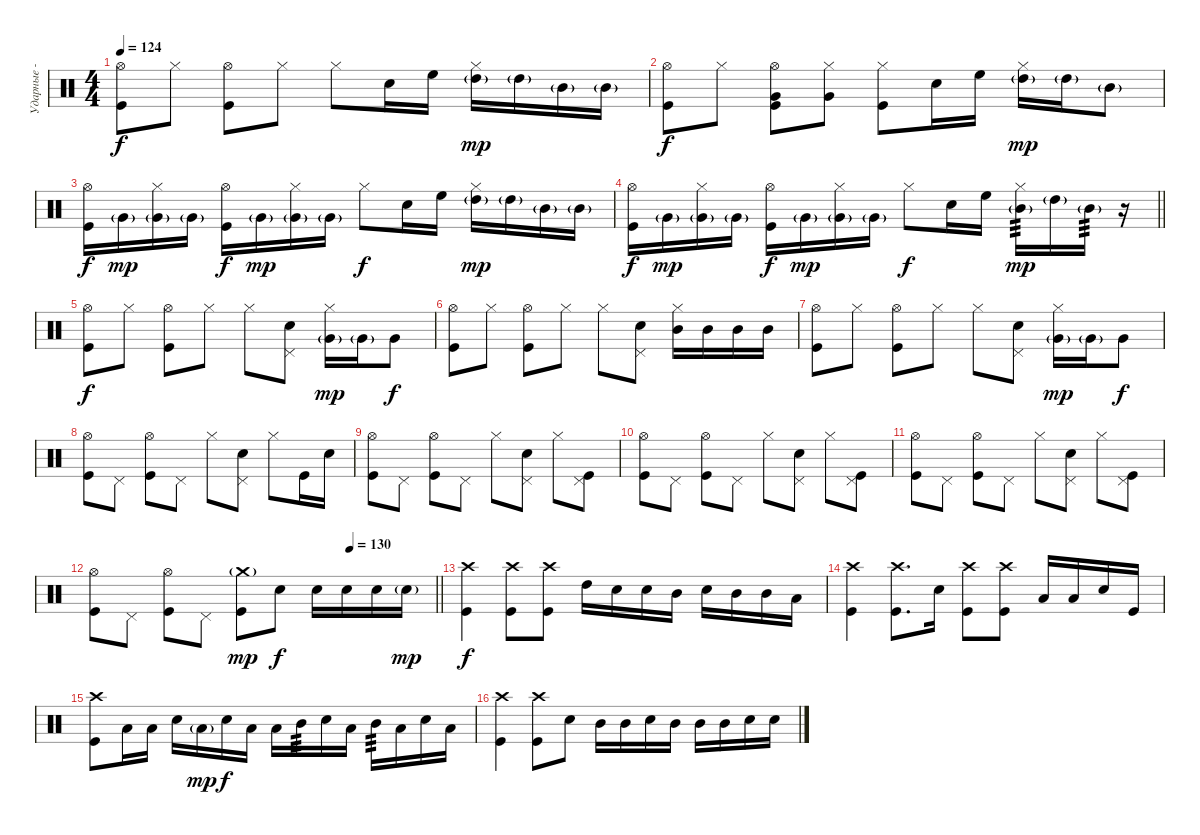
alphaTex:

\track ("Ударные - Джек Уайт" "Ударные - ") {instrument percussion}
\staff {score}
\articulation defaults
\ts (4 4)
\tempo 124
\clef neutral
\ks c
("Hi-Hat (open)" "Kick (hit)").8{dy f} "Hi-Hat (closed)".8 ("Hi-Hat (open)" "Kick (hit)").8 "Hi-Hat (closed)".8 "Hi-Hat (closed)".8 "Electric Snare (hit)".16 "High Floor Tom (hit)".16 ("Hi-Hat (closed)" "High Tom (hit)"{g}).16{dy mp} "High Tom (hit)"{g}.16 "Mid Tom (hit)"{g}.16 "Mid Tom (hit)"{g}.16 |
("Hi-Hat (open)" "Kick (hit)").8{dy f} "Hi-Hat (closed)".8 ("Hi-Hat (open)" "Very Low Tom (hit)" "Kick (hit)").8 ("Hi-Hat (closed)" "Very Low Tom (hit)").8 ("Hi-Hat (closed)" "Kick (hit)").8 "Electric Snare (hit)".16 "High Floor Tom (hit)".16 ("Hi-Hat (closed)" "High Tom (hit)"{g}).16{dy mp} "High Tom (hit)"{g}.16 "Mid Tom (hit)"{g}.8 |
("Hi-Hat (open)" "Kick (hit)").16{dy f} "Very Low Tom (hit)"{g}.16{dy mp} ("Hi-Hat (closed)" "Very Low Tom (hit)"{g}).16 "Very Low Tom (hit)"{g}.16 ("Hi-Hat (open)" "Kick (hit)").16{dy f} "Very Low Tom (hit)"{g}.16{dy mp} ("Hi-Hat (closed)" "Very Low Tom (hit)"{g}).16 "Very Low Tom (hit)"{g}.16 "Hi-Hat (closed)".8{dy f} "Electric Snare (hit)".16 "High Floor Tom (hit)".16 ("Hi-Hat (closed)" "High Tom (hit)"{g}).16{dy mp} "High Tom (hit)"{g}.16 "Mid Tom (hit)"{g}.16 "Mid Tom (hit)"{g}.16 |
\barLineRight lightlight
("Hi-Hat (open)" "Kick (hit)").16{dy f} "Very Low Tom (hit)"{g}.16{dy mp} ("Hi-Hat (closed)" "Very Low Tom (hit)"{g}).16 "Very Low Tom (hit)"{g}.16 ("Hi-Hat (open)" "Kick (hit)").16{dy f} "Very Low Tom (hit)"{g}.16{dy mp} ("Hi-Hat (closed)" "Very Low Tom (hit)"{g}).16 "Very Low Tom (hit)"{g}.16 "Hi-Hat (closed)".8{dy f} "Electric Snare (hit)".16 "High Floor Tom (hit)".16 ("Hi-Hat (closed)" "Mid Tom (hit)"{g}).16{tp 3 dy mp} "High Tom (hit)"{g}.16 "Mid Tom (hit)"{g}.16{tp 3} r.16 |
("Hi-Hat (open)" "Kick (hit)").8{dy f} "Hi-Hat (closed)".8 ("Hi-Hat (open)" "Kick (hit)").8 "Hi-Hat (closed)".8 "Hi-Hat (closed)".8 ("Pedal Hi-Hat (hit)" "Electric Snare (hit)").8 ("Hi-Hat (closed)" "Very Low Tom (hit)"{g}).16{dy mp} "Very Low Tom (hit)"{g}.16 "Very Low Tom (hit)".8{dy f} |
("Hi-Hat (open)" "Kick (hit)").8 "Hi-Hat (closed)".8 ("Hi-Hat (open)" "Kick (hit)").8 "Hi-Hat (closed)".8 "Hi-Hat (closed)".8 ("Pedal Hi-Hat (hit)" "Electric Snare (hit)").8 ("Hi-Hat (closed)" "Mid Tom (hit)").16 "Mid Tom (hit)".16 "Mid Tom (hit)".16 "Mid Tom (hit)".16 |
("Hi-Hat (open)" "Kick (hit)").8 "Hi-Hat (closed)".8 ("Hi-Hat (open)" "Kick (hit)").8 "Hi-Hat (closed)".8 "Hi-Hat (closed)".8 ("Pedal Hi-Hat (hit)" "Electric Snare (hit)").8 ("Hi-Hat (closed)" "Very Low Tom (hit)"{g}).16{dy mp} "Very Low Tom (hit)"{g}.16 "Very Low Tom (hit)".8{dy f} |
("Hi-Hat (open)" "Kick (hit)").8 "Pedal Hi-Hat (hit)".8 ("Hi-Hat (open)" "Kick (hit)").8 "Pedal Hi-Hat (hit)".8 "Hi-Hat (closed)".8 ("Pedal Hi-Hat (hit)" "Electric Snare (hit)").8 "Hi-Hat (closed)".8 "Kick (hit)".16 "Snare (hit) 2".16 |
("Hi-Hat (open)" "Kick (hit)").8 "Pedal Hi-Hat (hit)".8 ("Hi-Hat (open)" "Kick (hit)").8 "Pedal Hi-Hat (hit)".8 "Hi-Hat (closed)".8 ("Pedal Hi-Hat (hit)" "Electric Snare (hit)").8 "Hi-Hat (closed)".8 ("Pedal Hi-Hat (hit)" "Kick (hit)").8 |
("Hi-Hat (open)" "Kick (hit)").8 "Pedal Hi-Hat (hit)".8 ("Hi-Hat (open)" "Kick (hit)").8 "Pedal Hi-Hat (hit)".8 "Hi-Hat (closed)".8 ("Pedal Hi-Hat (hit)" "Electric Snare (hit)").8 "Hi-Hat (closed)".8 ("Pedal Hi-Hat (hit)" "Kick (hit)").8 |
("Hi-Hat (open)" "Kick (hit)").8 "Pedal Hi-Hat (hit)".8 ("Hi-Hat (open)" "Kick (hit)").8 "Pedal Hi-Hat (hit)".8 "Hi-Hat (closed)".8 ("Pedal Hi-Hat (hit)" "Electric Snare (hit)").8 "Hi-Hat (closed)".8 ("Pedal Hi-Hat (hit)" "Kick (hit)").8 |
\tempo (130 0.75)
\barLineRight lightlight
("Hi-Hat (open)" "Kick (hit)").8 "Pedal Hi-Hat (hit)".8 ("Hi-Hat (open)" "Kick (hit)").8 "Pedal Hi-Hat (hit)".8 ("Crash medium (hit)"{g} "Kick (hit)").8{dy mp} "Snare (hit) 2".8{dy f} "Snare (hit) 2".16 "Snare (hit) 2".16 "Snare (hit) 2".16 "Snare (hit) 2"{g}.16{dy mp} |
("Crash high (hit)" "Kick (hit)").4{dy f} ("Crash high (hit)" "Kick (hit)").8 ("Crash high (hit)" "Kick (hit)").8 "High Tom (hit)".16 "Electric Snare (hit)".16 "Electric Snare (hit)".16 "Mid Tom (hit)".16 "Electric Snare (hit)".16 "Mid Tom (hit)".16 "Mid Tom (hit)".16 "Low Tom (hit)".16 |
("Crash high (hit)" "Kick (hit)").4 ("Crash high (hit)" "Kick (hit)").8{d} "Electric Snare (hit)".16 ("Crash high (hit)" "Kick (hit)").8 ("Crash high (hit)" "Kick (hit)").8 "Low Tom (hit)".16 "Low Tom (hit)".16 "Electric Snare (hit)".16 "Kick (hit)".16 |
("Crash high (hit)" "Kick (hit)").8 "Low Tom (hit)".16 "Low Tom (hit)".16 "Electric Snare (hit)".16 "Low Tom (hit)"{g}.16{dy mp} "Electric Snare (hit)".16{dy f} "Low Tom (hit)".16 "Low Tom (hit)".16 "Mid Tom (hit)".16{tp 3} "Electric Snare (hit)".16 "Low Tom (hit)".16 "Mid Tom (hit)".16{tp 3} "Low Tom (hit)".16 "Electric Snare (hit)".16 "Low Tom (hit)".16 |
("Crash high (hit)" "Kick (hit)").4 ("Crash high (hit)" "Kick (hit)").8 "Electric Snare (hit)".8 "Mid Tom (hit)".16 "Mid Tom (hit)".16 "Electric Snare (hit)".16 "Mid Tom (hit)".16 "Mid Tom (hit)".16 "Mid Tom (hit)".16 "Electric Snare (hit)".16 "Electric Snare (hit)".16
